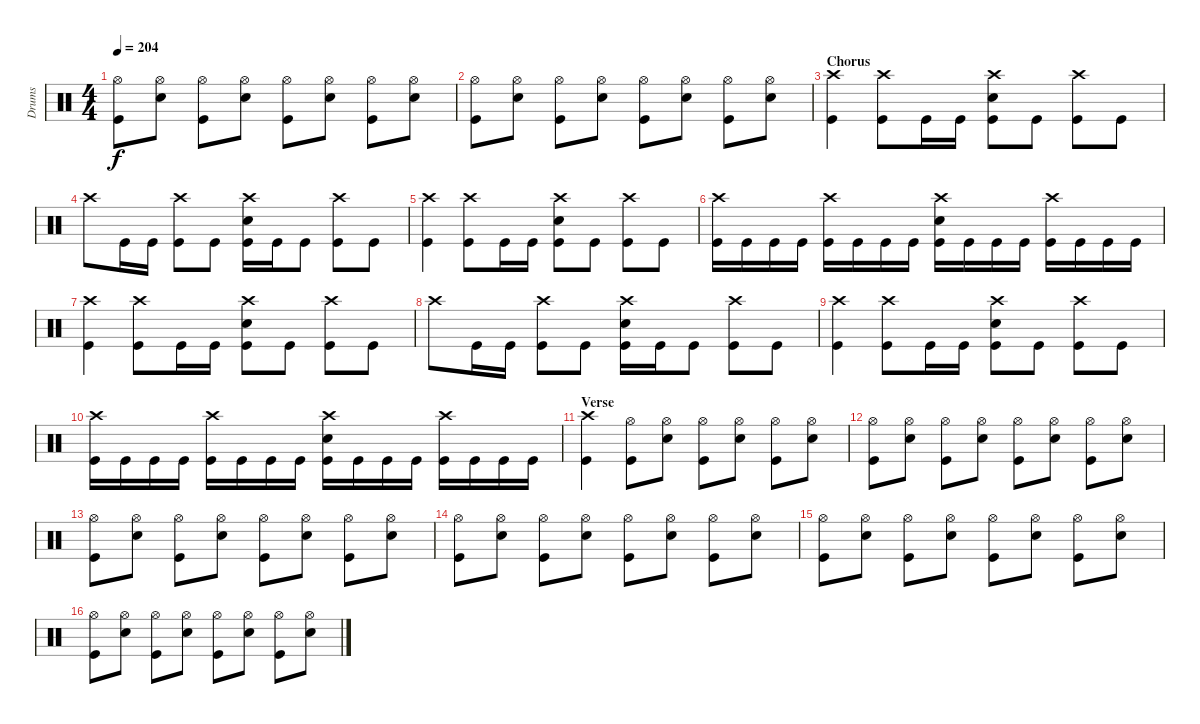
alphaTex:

\track ("Drums" "Drums") {instrument percussion}
\staff {score}
\articulation defaults
\ts (4 4)
\tempo 204
\clef neutral
\ks c
("Hi-Hat (open)" "Kick (hit)").8{dy f} ("Hi-Hat (open)" "Electric Snare (hit)").8 ("Hi-Hat (open)" "Kick (hit)").8 ("Hi-Hat (open)" "Electric Snare (hit)").8 ("Hi-Hat (open)" "Kick (hit)").8 ("Hi-Hat (open)" "Electric Snare (hit)").8 ("Hi-Hat (open)" "Kick (hit)").8 ("Hi-Hat (open)" "Electric Snare (hit)").8 |
("Hi-Hat (open)" "Kick (hit)").8 ("Hi-Hat (open)" "Electric Snare (hit)").8 ("Hi-Hat (open)" "Kick (hit)").8 ("Hi-Hat (open)" "Electric Snare (hit)").8 ("Hi-Hat (open)" "Kick (hit)").8 ("Hi-Hat (open)" "Electric Snare (hit)").8 ("Hi-Hat (open)" "Kick (hit)").8 ("Hi-Hat (open)" "Electric Snare (hit)").8 |
\section ("" "Chorus")
("Crash high (hit)" "Kick (hit)").4 ("Crash high (hit)" "Kick (hit)").8 "Kick (hit)".16 "Kick (hit)".16 ("Crash high (hit)" "Electric Snare (hit)" "Kick (hit)").8 "Kick (hit)".8 ("Crash high (hit)" "Kick (hit)").8 "Kick (hit)".8 |
"Crash high (hit)".8 "Kick (hit)".16 "Kick (hit)".16 ("Crash high (hit)" "Kick (hit)").8 "Kick (hit)".8 ("Crash high (hit)" "Electric Snare (hit)" "Kick (hit)").16 "Kick (hit)".16 "Kick (hit)".8 ("Crash high (hit)" "Kick (hit)").8 "Kick (hit)".8 |
("Crash high (hit)" "Kick (hit)").4 ("Crash high (hit)" "Kick (hit)").8 "Kick (hit)".16 "Kick (hit)".16 ("Crash high (hit)" "Electric Snare (hit)" "Kick (hit)").8 "Kick (hit)".8 ("Crash high (hit)" "Kick (hit)").8 "Kick (hit)".8 |
("Crash high (hit)" "Kick (hit)").16 "Kick (hit)".16 "Kick (hit)".16 "Kick (hit)".16 ("Crash high (hit)" "Kick (hit)").16 "Kick (hit)".16 "Kick (hit)".16 "Kick (hit)".16 ("Crash high (hit)" "Electric Snare (hit)" "Kick (hit)").16 "Kick (hit)".16 "Kick (hit)".16 "Kick (hit)".16 ("Crash high (hit)" "Kick (hit)").16 "Kick (hit)".16 "Kick (hit)".16 "Kick (hit)".16 |
("Crash high (hit)" "Kick (hit)").4 ("Crash high (hit)" "Kick (hit)").8 "Kick (hit)".16 "Kick (hit)".16 ("Crash high (hit)" "Electric Snare (hit)" "Kick (hit)").8 "Kick (hit)".8 ("Crash high (hit)" "Kick (hit)").8 "Kick (hit)".8 |
"Crash high (hit)".8 "Kick (hit)".16 "Kick (hit)".16 ("Crash high (hit)" "Kick (hit)").8 "Kick (hit)".8 ("Crash high (hit)" "Electric Snare (hit)" "Kick (hit)").16 "Kick (hit)".16 "Kick (hit)".8 ("Crash high (hit)" "Kick (hit)").8 "Kick (hit)".8 |
("Crash high (hit)" "Kick (hit)").4 ("Crash high (hit)" "Kick (hit)").8 "Kick (hit)".16 "Kick (hit)".16 ("Crash high (hit)" "Electric Snare (hit)" "Kick (hit)").8 "Kick (hit)".8 ("Crash high (hit)" "Kick (hit)").8 "Kick (hit)".8 |
("Crash high (hit)" "Kick (hit)").16 "Kick (hit)".16 "Kick (hit)".16 "Kick (hit)".16 ("Crash high (hit)" "Kick (hit)").16 "Kick (hit)".16 "Kick (hit)".16 "Kick (hit)".16 ("Crash high (hit)" "Electric Snare (hit)" "Kick (hit)").16 "Kick (hit)".16 "Kick (hit)".16 "Kick (hit)".16 ("Crash high (hit)" "Kick (hit)").16 "Kick (hit)".16 "Kick (hit)".16 "Kick (hit)".16 |
\section ("" "Verse")
("Crash high (hit)" "Kick (hit)").4 ("Hi-Hat (open)" "Kick (hit)").8 ("Hi-Hat (open)" "Electric Snare (hit)").8 ("Hi-Hat (open)" "Kick (hit)").8 ("Hi-Hat (open)" "Electric Snare (hit)").8 ("Hi-Hat (open)" "Kick (hit)").8 ("Hi-Hat (open)" "Electric Snare (hit)").8 |
("Hi-Hat (open)" "Kick (hit)").8 ("Hi-Hat (open)" "Electric Snare (hit)").8 ("Hi-Hat (open)" "Kick (hit)").8 ("Hi-Hat (open)" "Electric Snare (hit)").8 ("Hi-Hat (open)" "Kick (hit)").8 ("Hi-Hat (open)" "Electric Snare (hit)").8 ("Hi-Hat (open)" "Kick (hit)").8 ("Hi-Hat (open)" "Electric Snare (hit)").8 |
("Hi-Hat (open)" "Kick (hit)").8 ("Hi-Hat (open)" "Electric Snare (hit)").8 ("Hi-Hat (open)" "Kick (hit)").8 ("Hi-Hat (open)" "Electric Snare (hit)").8 ("Hi-Hat (open)" "Kick (hit)").8 ("Hi-Hat (open)" "Electric Snare (hit)").8 ("Hi-Hat (open)" "Kick (hit)").8 ("Hi-Hat (open)" "Electric Snare (hit)").8 |
("Hi-Hat (open)" "Kick (hit)").8 ("Hi-Hat (open)" "Electric Snare (hit)").8 ("Hi-Hat (open)" "Kick (hit)").8 ("Hi-Hat (open)" "Electric Snare (hit)").8 ("Hi-Hat (open)" "Kick (hit)").8 ("Hi-Hat (open)" "Electric Snare (hit)").8 ("Hi-Hat (open)" "Kick (hit)").8 ("Hi-Hat (open)" "Electric Snare (hit)").8 |
("Hi-Hat (open)" "Kick (hit)").8 ("Hi-Hat (open)" "Electric Snare (hit)").8 ("Hi-Hat (open)" "Kick (hit)").8 ("Hi-Hat (open)" "Electric Snare (hit)").8 ("Hi-Hat (open)" "Kick (hit)").8 ("Hi-Hat (open)" "Electric Snare (hit)").8 ("Hi-Hat (open)" "Kick (hit)").8 ("Hi-Hat (open)" "Electric Snare (hit)").8 |
("Hi-Hat (open)" "Kick (hit)").8 ("Hi-Hat (open)" "Electric Snare (hit)").8 ("Hi-Hat (open)" "Kick (hit)").8 ("Hi-Hat (open)" "Electric Snare (hit)").8 ("Hi-Hat (open)" "Kick (hit)").8 ("Hi-Hat (open)" "Electric Snare (hit)").8 ("Hi-Hat (open)" "Kick (hit)").8 ("Hi-Hat (open)" "Electric Snare (hit)").8
